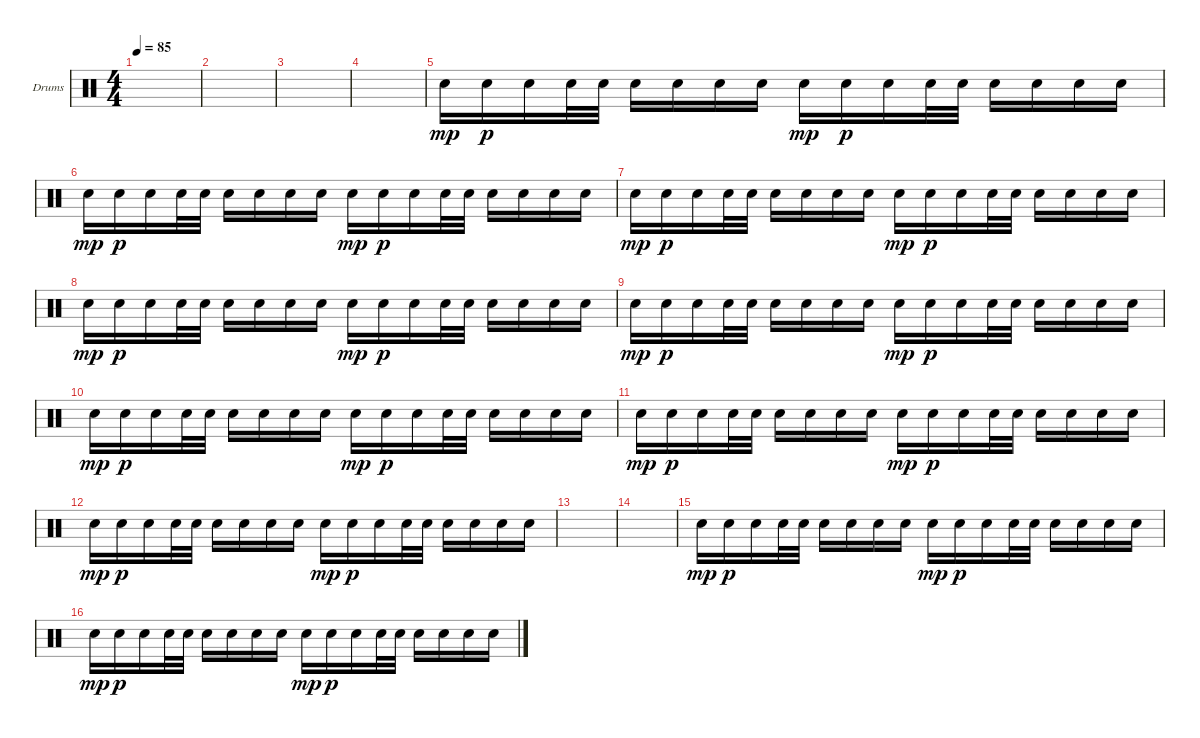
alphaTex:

\defaultSystemsLayout 4
\bracketExtendMode groupsimilarinstruments
\firstSystemTrackNameOrientation horizontal
\otherSystemsTrackNameOrientation horizontal
\track ("Drumkit" "Drums") {instrument percussion}
\staff {score}
\articulation defaults
\ts (4 4)
\tempo 85
\clef neutral
\ks c
|
|
|
|
"Snare (hit) 2".16{dy mp} "Snare (hit) 2".16{dy p} "Snare (hit) 2".16 "Snare (hit) 2".32 "Snare (hit) 2".32 "Snare (hit) 2".16 "Snare (hit) 2".16 "Snare (hit) 2".16 "Snare (hit) 2".16 "Snare (hit) 2".16{dy mp} "Snare (hit) 2".16{dy p} "Snare (hit) 2".16 "Snare (hit) 2".32 "Snare (hit) 2".32 "Snare (hit) 2".16 "Snare (hit) 2".16 "Snare (hit) 2".16 "Snare (hit) 2".16 |
"Snare (hit) 2".16{dy mp} "Snare (hit) 2".16{dy p} "Snare (hit) 2".16 "Snare (hit) 2".32 "Snare (hit) 2".32 "Snare (hit) 2".16 "Snare (hit) 2".16 "Snare (hit) 2".16 "Snare (hit) 2".16 "Snare (hit) 2".16{dy mp} "Snare (hit) 2".16{dy p} "Snare (hit) 2".16 "Snare (hit) 2".32 "Snare (hit) 2".32 "Snare (hit) 2".16 "Snare (hit) 2".16 "Snare (hit) 2".16 "Snare (hit) 2".16 |
"Snare (hit) 2".16{dy mp} "Snare (hit) 2".16{dy p} "Snare (hit) 2".16 "Snare (hit) 2".32 "Snare (hit) 2".32 "Snare (hit) 2".16 "Snare (hit) 2".16 "Snare (hit) 2".16 "Snare (hit) 2".16 "Snare (hit) 2".16{dy mp} "Snare (hit) 2".16{dy p} "Snare (hit) 2".16 "Snare (hit) 2".32 "Snare (hit) 2".32 "Snare (hit) 2".16 "Snare (hit) 2".16 "Snare (hit) 2".16 "Snare (hit) 2".16 |
"Snare (hit) 2".16{dy mp} "Snare (hit) 2".16{dy p} "Snare (hit) 2".16 "Snare (hit) 2".32 "Snare (hit) 2".32 "Snare (hit) 2".16 "Snare (hit) 2".16 "Snare (hit) 2".16 "Snare (hit) 2".16 "Snare (hit) 2".16{dy mp} "Snare (hit) 2".16{dy p} "Snare (hit) 2".16 "Snare (hit) 2".32 "Snare (hit) 2".32 "Snare (hit) 2".16 "Snare (hit) 2".16 "Snare (hit) 2".16 "Snare (hit) 2".16 |
"Snare (hit) 2".16{dy mp} "Snare (hit) 2".16{dy p} "Snare (hit) 2".16 "Snare (hit) 2".32 "Snare (hit) 2".32 "Snare (hit) 2".16 "Snare (hit) 2".16 "Snare (hit) 2".16 "Snare (hit) 2".16 "Snare (hit) 2".16{dy mp} "Snare (hit) 2".16{dy p} "Snare (hit) 2".16 "Snare (hit) 2".32 "Snare (hit) 2".32 "Snare (hit) 2".16 "Snare (hit) 2".16 "Snare (hit) 2".16 "Snare (hit) 2".16 |
"Snare (hit) 2".16{dy mp} "Snare (hit) 2".16{dy p} "Snare (hit) 2".16 "Snare (hit) 2".32 "Snare (hit) 2".32 "Snare (hit) 2".16 "Snare (hit) 2".16 "Snare (hit) 2".16 "Snare (hit) 2".16 "Snare (hit) 2".16{dy mp} "Snare (hit) 2".16{dy p} "Snare (hit) 2".16 "Snare (hit) 2".32 "Snare (hit) 2".32 "Snare (hit) 2".16 "Snare (hit) 2".16 "Snare (hit) 2".16 "Snare (hit) 2".16 |
"Snare (hit) 2".16{dy mp} "Snare (hit) 2".16{dy p} "Snare (hit) 2".16 "Snare (hit) 2".32 "Snare (hit) 2".32 "Snare (hit) 2".16 "Snare (hit) 2".16 "Snare (hit) 2".16 "Snare (hit) 2".16 "Snare (hit) 2".16{dy mp} "Snare (hit) 2".16{dy p} "Snare (hit) 2".16 "Snare (hit) 2".32 "Snare (hit) 2".32 "Snare (hit) 2".16 "Snare (hit) 2".16 "Snare (hit) 2".16 "Snare (hit) 2".16 |
"Snare (hit) 2".16{dy mp} "Snare (hit) 2".16{dy p} "Snare (hit) 2".16 "Snare (hit) 2".32 "Snare (hit) 2".32 "Snare (hit) 2".16 "Snare (hit) 2".16 "Snare (hit) 2".16 "Snare (hit) 2".16 "Snare (hit) 2".16{dy mp} "Snare (hit) 2".16{dy p} "Snare (hit) 2".16 "Snare (hit) 2".32 "Snare (hit) 2".32 "Snare (hit) 2".16 "Snare (hit) 2".16 "Snare (hit) 2".16 "Snare (hit) 2".16 |
|
|
"Snare (hit) 2".16{dy mp} "Snare (hit) 2".16{dy p} "Snare (hit) 2".16 "Snare (hit) 2".32 "Snare (hit) 2".32 "Snare (hit) 2".16 "Snare (hit) 2".16 "Snare (hit) 2".16 "Snare (hit) 2".16 "Snare (hit) 2".16{dy mp} "Snare (hit) 2".16{dy p} "Snare (hit) 2".16 "Snare (hit) 2".32 "Snare (hit) 2".32 "Snare (hit) 2".16 "Snare (hit) 2".16 "Snare (hit) 2".16 "Snare (hit) 2".16 |
"Snare (hit) 2".16{dy mp} "Snare (hit) 2".16{dy p} "Snare (hit) 2".16 "Snare (hit) 2".32 "Snare (hit) 2".32 "Snare (hit) 2".16 "Snare (hit) 2".16 "Snare (hit) 2".16 "Snare (hit) 2".16 "Snare (hit) 2".16{dy mp} "Snare (hit) 2".16{dy p} "Snare (hit) 2".16 "Snare (hit) 2".32 "Snare (hit) 2".32 "Snare (hit) 2".16 "Snare (hit) 2".16 "Snare (hit) 2".16 "Snare (hit) 2".16
